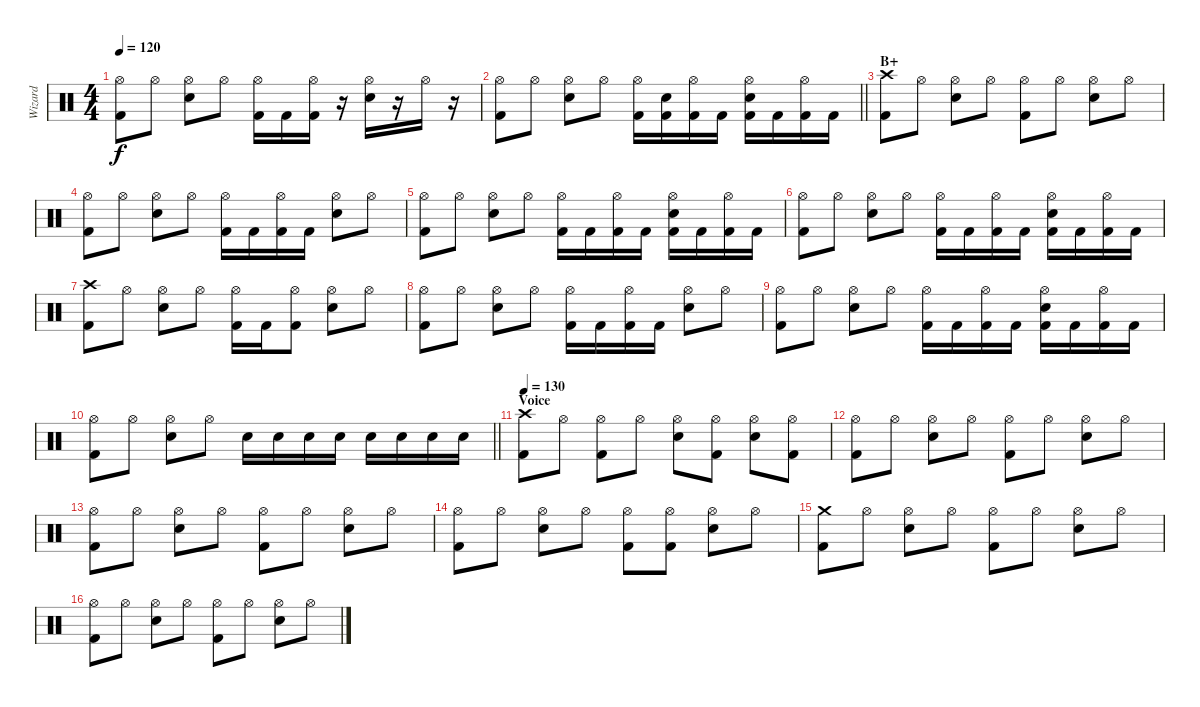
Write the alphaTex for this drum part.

\track ("Wizard" "Wizard") {instrument percussion}
\staff {score}
\articulation defaults
\ts (4 4)
\tempo 120
\clef neutral
\ks c
("Hi-Hat (open)" "Kick (hit) 2").8{dy f} "Hi-Hat (open)".8 ("Hi-Hat (open)" "Snare (hit) 2").8 "Hi-Hat (open)".8 ("Hi-Hat (open)" "Kick (hit) 2").16 "Kick (hit) 2".16 ("Hi-Hat (open)" "Kick (hit) 2").16 r.16 ("Hi-Hat (open)" "Snare (hit) 2").16 r.16 "Hi-Hat (open)".16 r.16 |
\barLineRight lightlight
("Hi-Hat (open)" "Kick (hit) 2").8 "Hi-Hat (open)".8 ("Hi-Hat (open)" "Snare (hit) 2").8 "Hi-Hat (open)".8 ("Hi-Hat (open)" "Kick (hit) 2").16 ("Snare (hit) 2" "Kick (hit) 2").16 ("Hi-Hat (open)" "Kick (hit) 2").16 "Kick (hit) 2".16 ("Hi-Hat (open)" "Snare (hit) 2" "Kick (hit) 2").16 "Kick (hit) 2".16 ("Hi-Hat (open)" "Kick (hit) 2").16 "Kick (hit) 2".16 |
\section ("" "B+")
("Crash high (hit)" "Kick (hit) 2").8 "Hi-Hat (open)".8 ("Hi-Hat (open)" "Snare (hit) 2").8 "Hi-Hat (open)".8 ("Hi-Hat (open)" "Kick (hit) 2").8 "Hi-Hat (open)".8 ("Hi-Hat (open)" "Snare (hit) 2").8 "Hi-Hat (open)".8 |
("Hi-Hat (open)" "Kick (hit) 2").8 "Hi-Hat (open)".8 ("Hi-Hat (open)" "Snare (hit) 2").8 "Hi-Hat (open)".8 ("Hi-Hat (open)" "Kick (hit) 2").16 "Kick (hit) 2".16 ("Hi-Hat (open)" "Kick (hit) 2").16 "Kick (hit) 2".16 ("Hi-Hat (open)" "Snare (hit) 2").8 "Hi-Hat (open)".8 |
("Hi-Hat (open)" "Kick (hit) 2").8 "Hi-Hat (open)".8 ("Hi-Hat (open)" "Snare (hit) 2").8 "Hi-Hat (open)".8 ("Hi-Hat (open)" "Kick (hit) 2").16 "Kick (hit) 2".16 ("Hi-Hat (open)" "Kick (hit) 2").16 "Kick (hit) 2".16 ("Hi-Hat (open)" "Snare (hit) 2" "Kick (hit) 2").16 "Kick (hit) 2".16 ("Hi-Hat (open)" "Kick (hit) 2").16 "Kick (hit) 2".16 |
("Hi-Hat (open)" "Kick (hit) 2").8 "Hi-Hat (open)".8 ("Hi-Hat (open)" "Snare (hit) 2").8 "Hi-Hat (open)".8 ("Hi-Hat (open)" "Kick (hit) 2").16 "Kick (hit) 2".16 ("Hi-Hat (open)" "Kick (hit) 2").16 "Kick (hit) 2".16 ("Hi-Hat (open)" "Snare (hit) 2" "Kick (hit) 2").16 "Kick (hit) 2".16 ("Hi-Hat (open)" "Kick (hit) 2").16 "Kick (hit) 2".16 |
("Crash high (hit)" "Kick (hit) 2").8 "Hi-Hat (open)".8 ("Hi-Hat (open)" "Snare (hit) 2").8 "Hi-Hat (open)".8 ("Hi-Hat (open)" "Kick (hit) 2").16 "Kick (hit) 2".16 ("Hi-Hat (open)" "Kick (hit) 2").8 ("Hi-Hat (open)" "Snare (hit) 2").8 "Hi-Hat (open)".8 |
("Hi-Hat (open)" "Kick (hit) 2").8 "Hi-Hat (open)".8 ("Hi-Hat (open)" "Snare (hit) 2").8 "Hi-Hat (open)".8 ("Hi-Hat (open)" "Kick (hit) 2").16 "Kick (hit) 2".16 ("Hi-Hat (open)" "Kick (hit) 2").16 "Kick (hit) 2".16 ("Hi-Hat (open)" "Snare (hit) 2").8 "Hi-Hat (open)".8 |
("Hi-Hat (open)" "Kick (hit) 2").8 "Hi-Hat (open)".8 ("Hi-Hat (open)" "Snare (hit) 2").8 "Hi-Hat (open)".8 ("Hi-Hat (open)" "Kick (hit) 2").16 "Kick (hit) 2".16 ("Hi-Hat (open)" "Kick (hit) 2").16 "Kick (hit) 2".16 ("Hi-Hat (open)" "Snare (hit) 2" "Kick (hit) 2").16 "Kick (hit) 2".16 ("Hi-Hat (open)" "Kick (hit) 2").16 "Kick (hit) 2".16 |
\barLineRight lightlight
("Hi-Hat (open)" "Kick (hit) 2").8 "Hi-Hat (open)".8 ("Hi-Hat (open)" "Snare (hit) 2").8 "Hi-Hat (open)".8 "Snare (hit) 2".16 "Snare (hit) 2".16 "Snare (hit) 2".16 "Snare (hit) 2".16 "Snare (hit) 2".16 "Snare (hit) 2".16 "Snare (hit) 2".16 "Snare (hit) 2".16 |
\section ("" "Voice")
\tempo 130
("Crash high (hit)" "Kick (hit) 2").8 "Hi-Hat (open)".8 ("Hi-Hat (open)" "Kick (hit) 2").8 "Hi-Hat (open)".8 ("Hi-Hat (open)" "Snare (hit) 2").8 ("Hi-Hat (open)" "Kick (hit) 2").8 ("Hi-Hat (open)" "Snare (hit) 2").8 ("Hi-Hat (open)" "Kick (hit) 2").8 |
("Hi-Hat (open)" "Kick (hit) 2").8 "Hi-Hat (open)".8 ("Hi-Hat (open)" "Snare (hit) 2").8 "Hi-Hat (open)".8 ("Hi-Hat (open)" "Kick (hit) 2").8 "Hi-Hat (open)".8 ("Hi-Hat (open)" "Snare (hit) 2").8 "Hi-Hat (open)".8 |
("Hi-Hat (open)" "Kick (hit) 2").8 "Hi-Hat (open)".8 ("Hi-Hat (open)" "Snare (hit) 2").8 "Hi-Hat (open)".8 ("Hi-Hat (open)" "Kick (hit) 2").8 "Hi-Hat (open)".8 ("Hi-Hat (open)" "Snare (hit) 2").8 "Hi-Hat (open)".8 |
("Hi-Hat (open)" "Kick (hit) 2").8 "Hi-Hat (open)".8 ("Hi-Hat (open)" "Snare (hit) 2").8 "Hi-Hat (open)".8 ("Hi-Hat (open)" "Kick (hit) 2").8 ("Hi-Hat (open)" "Kick (hit) 2").8 ("Hi-Hat (open)" "Snare (hit) 2").8 "Hi-Hat (open)".8 |
("Crash medium (hit)" "Kick (hit) 2").8 "Hi-Hat (open)".8 ("Hi-Hat (open)" "Snare (hit) 2").8 "Hi-Hat (open)".8 ("Hi-Hat (open)" "Kick (hit) 2").8 "Hi-Hat (open)".8 ("Hi-Hat (open)" "Snare (hit) 2").8 "Hi-Hat (open)".8 |
("Hi-Hat (open)" "Kick (hit) 2").8 "Hi-Hat (open)".8 ("Hi-Hat (open)" "Snare (hit) 2").8 "Hi-Hat (open)".8 ("Hi-Hat (open)" "Kick (hit) 2").8 "Hi-Hat (open)".8 ("Hi-Hat (open)" "Snare (hit) 2").8 "Hi-Hat (open)".8
